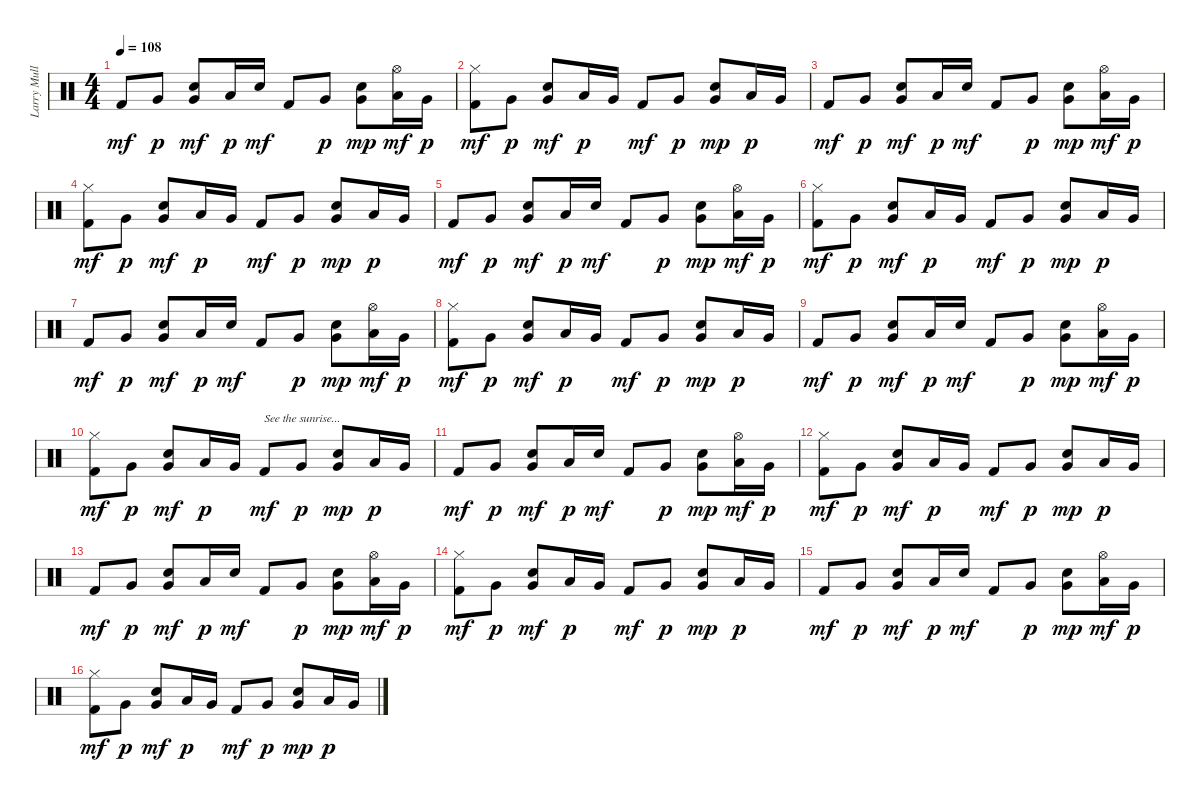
\track ("Larry Mullen Jr." "Larry Mull") {instrument percussion}
\staff {score}
\articulation defaults
\ts (4 4)
\tempo 108
\clef neutral
\ks c "Kick (hit) 2".8{dy mf} "Very Low Tom (hit)".8{dy p}
("Electric Snare (hit)" "Very Low Tom (hit)").8{dy mf} "Low Floor Tom (hit)".16{dy p} "Electric Snare (hit)".16{dy mf} "Kick (hit) 2".8 "Very Low Tom (hit)".8{dy p} ("Electric Snare (hit)" "Very Low Tom (hit)").8{dy mp} ("Low Floor Tom (hit)" "Hi-Hat (open)").16{dy mf} "Very Low Tom (hit)".16{dy p} |
("Kick (hit) 2" "Hi-Hat (closed)").8{dy mf} "Very Low Tom (hit)".8{dy p} ("Electric Snare (hit)" "Very Low Tom (hit)").8{dy mf} "Low Floor Tom (hit)".16{dy p} "Very Low Tom (hit)".16 "Kick (hit) 2".8{dy mf} "Very Low Tom (hit)".8{dy p} ("Electric Snare (hit)" "Very Low Tom (hit)").8{dy mp} "Low Floor Tom (hit)".16{dy p} "Very Low Tom (hit)".16 |
"Kick (hit) 2".8{dy mf} "Very Low Tom (hit)".8{dy p} ("Electric Snare (hit)" "Very Low Tom (hit)").8{dy mf} "Low Floor Tom (hit)".16{dy p} "Electric Snare (hit)".16{dy mf} "Kick (hit) 2".8 "Very Low Tom (hit)".8{dy p} ("Electric Snare (hit)" "Very Low Tom (hit)").8{dy mp} ("Low Floor Tom (hit)" "Hi-Hat (open)").16{dy mf} "Very Low Tom (hit)".16{dy p} |
("Kick (hit) 2" "Hi-Hat (closed)").8{dy mf} "Very Low Tom (hit)".8{dy p} ("Electric Snare (hit)" "Very Low Tom (hit)").8{dy mf} "Low Floor Tom (hit)".16{dy p} "Very Low Tom (hit)".16 "Kick (hit) 2".8{dy mf} "Very Low Tom (hit)".8{dy p} ("Electric Snare (hit)" "Very Low Tom (hit)").8{dy mp} "Low Floor Tom (hit)".16{dy p} "Very Low Tom (hit)".16 |
"Kick (hit) 2".8{dy mf} "Very Low Tom (hit)".8{dy p} ("Electric Snare (hit)" "Very Low Tom (hit)").8{dy mf} "Low Floor Tom (hit)".16{dy p} "Electric Snare (hit)".16{dy mf} "Kick (hit) 2".8 "Very Low Tom (hit)".8{dy p} ("Electric Snare (hit)" "Very Low Tom (hit)").8{dy mp} ("Low Floor Tom (hit)" "Hi-Hat (open)").16{dy mf} "Very Low Tom (hit)".16{dy p} |
("Kick (hit) 2" "Hi-Hat (closed)").8{dy mf} "Very Low Tom (hit)".8{dy p} ("Electric Snare (hit)" "Very Low Tom (hit)").8{dy mf} "Low Floor Tom (hit)".16{dy p} "Very Low Tom (hit)".16 "Kick (hit) 2".8{dy mf} "Very Low Tom (hit)".8{dy p} ("Electric Snare (hit)" "Very Low Tom (hit)").8{dy mp} "Low Floor Tom (hit)".16{dy p} "Very Low Tom (hit)".16 |
"Kick (hit) 2".8{dy mf} "Very Low Tom (hit)".8{dy p} ("Electric Snare (hit)" "Very Low Tom (hit)").8{dy mf} "Low Floor Tom (hit)".16{dy p} "Electric Snare (hit)".16{dy mf} "Kick (hit) 2".8 "Very Low Tom (hit)".8{dy p} ("Electric Snare (hit)" "Very Low Tom (hit)").8{dy mp} ("Low Floor Tom (hit)" "Hi-Hat (open)").16{dy mf} "Very Low Tom (hit)".16{dy p} |
("Kick (hit) 2" "Hi-Hat (closed)").8{dy mf} "Very Low Tom (hit)".8{dy p} ("Electric Snare (hit)" "Very Low Tom (hit)").8{dy mf} "Low Floor Tom (hit)".16{dy p} "Very Low Tom (hit)".16 "Kick (hit) 2".8{dy mf} "Very Low Tom (hit)".8{dy p} ("Electric Snare (hit)" "Very Low Tom (hit)").8{dy mp} "Low Floor Tom (hit)".16{dy p} "Very Low Tom (hit)".16 |
"Kick (hit) 2".8{dy mf} "Very Low Tom (hit)".8{dy p} ("Electric Snare (hit)" "Very Low Tom (hit)").8{dy mf} "Low Floor Tom (hit)".16{dy p} "Electric Snare (hit)".16{dy mf} "Kick (hit) 2".8 "Very Low Tom (hit)".8{dy p} ("Electric Snare (hit)" "Very Low Tom (hit)").8{dy mp} ("Low Floor Tom (hit)" "Hi-Hat (open)").16{dy mf} "Very Low Tom (hit)".16{dy p} |
("Kick (hit) 2" "Hi-Hat (closed)").8{dy mf} "Very Low Tom (hit)".8{dy p} ("Electric Snare (hit)" "Very Low Tom (hit)").8{dy mf} "Low Floor Tom (hit)".16{dy p} "Very Low Tom (hit)".16 "Kick (hit) 2".8{txt "See the sunrise..." dy mf} "Very Low Tom (hit)".8{dy p} ("Electric Snare (hit)" "Very Low Tom (hit)").8{dy mp} "Low Floor Tom (hit)".16{dy p} "Very Low Tom (hit)".16 |
"Kick (hit) 2".8{dy mf} "Very Low Tom (hit)".8{dy p} ("Electric Snare (hit)" "Very Low Tom (hit)").8{dy mf} "Low Floor Tom (hit)".16{dy p} "Electric Snare (hit)".16{dy mf} "Kick (hit) 2".8 "Very Low Tom (hit)".8{dy p} ("Electric Snare (hit)" "Very Low Tom (hit)").8{dy mp} ("Low Floor Tom (hit)" "Hi-Hat (open)").16{dy mf} "Very Low Tom (hit)".16{dy p} |
("Kick (hit) 2" "Hi-Hat (closed)").8{dy mf} "Very Low Tom (hit)".8{dy p} ("Electric Snare (hit)" "Very Low Tom (hit)").8{dy mf} "Low Floor Tom (hit)".16{dy p} "Very Low Tom (hit)".16 "Kick (hit) 2".8{dy mf} "Very Low Tom (hit)".8{dy p} ("Electric Snare (hit)" "Very Low Tom (hit)").8{dy mp} "Low Floor Tom (hit)".16{dy p} "Very Low Tom (hit)".16 |
"Kick (hit) 2".8{dy mf} "Very Low Tom (hit)".8{dy p} ("Electric Snare (hit)" "Very Low Tom (hit)").8{dy mf} "Low Floor Tom (hit)".16{dy p} "Electric Snare (hit)".16{dy mf} "Kick (hit) 2".8 "Very Low Tom (hit)".8{dy p} ("Electric Snare (hit)" "Very Low Tom (hit)").8{dy mp} ("Low Floor Tom (hit)" "Hi-Hat (open)").16{dy mf} "Very Low Tom (hit)".16{dy p} |
("Kick (hit) 2" "Hi-Hat (closed)").8{dy mf} "Very Low Tom (hit)".8{dy p} ("Electric Snare (hit)" "Very Low Tom (hit)").8{dy mf} "Low Floor Tom (hit)".16{dy p} "Very Low Tom (hit)".16 "Kick (hit) 2".8{dy mf} "Very Low Tom (hit)".8{dy p} ("Electric Snare (hit)" "Very Low Tom (hit)").8{dy mp} "Low Floor Tom (hit)".16{dy p} "Very Low Tom (hit)".16 |
"Kick (hit) 2".8{dy mf} "Very Low Tom (hit)".8{dy p} ("Electric Snare (hit)" "Very Low Tom (hit)").8{dy mf} "Low Floor Tom (hit)".16{dy p} "Electric Snare (hit)".16{dy mf} "Kick (hit) 2".8 "Very Low Tom (hit)".8{dy p} ("Electric Snare (hit)" "Very Low Tom (hit)").8{dy mp} ("Low Floor Tom (hit)" "Hi-Hat (open)").16{dy mf} "Very Low Tom (hit)".16{dy p} |
("Kick (hit) 2" "Hi-Hat (closed)").8{dy mf} "Very Low Tom (hit)".8{dy p} ("Electric Snare (hit)" "Very Low Tom (hit)").8{dy mf} "Low Floor Tom (hit)".16{dy p} "Very Low Tom (hit)".16 "Kick (hit) 2".8{dy mf} "Very Low Tom (hit)".8{dy p} ("Electric Snare (hit)" "Very Low Tom (hit)").8{dy mp} "Low Floor Tom (hit)".16{dy p} "Very Low Tom (hit)".16
